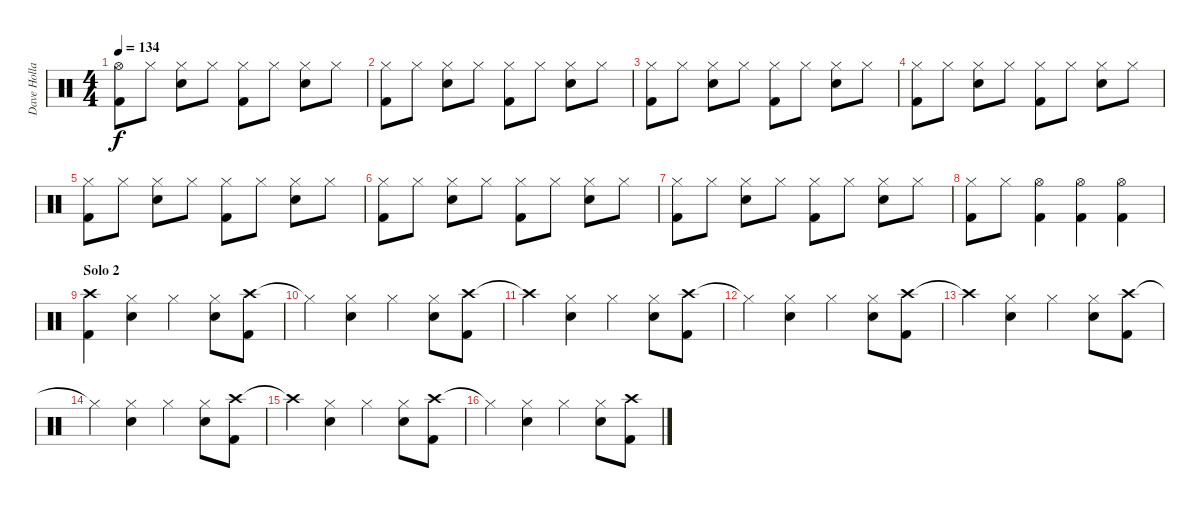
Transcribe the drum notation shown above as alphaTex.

\track ("Dave Holland" "Dave Holla") {instrument percussion}
\staff {score}
\articulation defaults
\ts (4 4)
\tempo 134
\clef neutral
\ks c
("Hi-Hat (open)" "Kick (hit) 2").8{dy f} "Hi-Hat (closed)".8 ("Hi-Hat (closed)" "Snare (hit) 2").8 "Hi-Hat (closed)".8 ("Hi-Hat (closed)" "Kick (hit) 2").8 "Hi-Hat (closed)".8 ("Hi-Hat (closed)" "Snare (hit) 2").8 "Hi-Hat (closed)".8 |
("Hi-Hat (closed)" "Kick (hit) 2").8 "Hi-Hat (closed)".8 ("Hi-Hat (closed)" "Snare (hit) 2").8 "Hi-Hat (closed)".8 ("Hi-Hat (closed)" "Kick (hit) 2").8 "Hi-Hat (closed)".8 ("Hi-Hat (closed)" "Snare (hit) 2").8 "Hi-Hat (closed)".8 |
("Hi-Hat (closed)" "Kick (hit) 2").8 "Hi-Hat (closed)".8 ("Hi-Hat (closed)" "Snare (hit) 2").8 "Hi-Hat (closed)".8 ("Hi-Hat (closed)" "Kick (hit) 2").8 "Hi-Hat (closed)".8 ("Hi-Hat (closed)" "Snare (hit) 2").8 "Hi-Hat (closed)".8 |
("Hi-Hat (closed)" "Kick (hit) 2").8 "Hi-Hat (closed)".8 ("Hi-Hat (closed)" "Snare (hit) 2").8 "Hi-Hat (closed)".8 ("Hi-Hat (closed)" "Kick (hit) 2").8 "Hi-Hat (closed)".8 ("Hi-Hat (closed)" "Snare (hit) 2").8 "Hi-Hat (closed)".8 |
("Hi-Hat (closed)" "Kick (hit) 2").8 "Hi-Hat (closed)".8 ("Hi-Hat (closed)" "Snare (hit) 2").8 "Hi-Hat (closed)".8 ("Hi-Hat (closed)" "Kick (hit) 2").8 "Hi-Hat (closed)".8 ("Hi-Hat (closed)" "Snare (hit) 2").8 "Hi-Hat (closed)".8 |
("Hi-Hat (closed)" "Kick (hit) 2").8 "Hi-Hat (closed)".8 ("Hi-Hat (closed)" "Snare (hit) 2").8 "Hi-Hat (closed)".8 ("Hi-Hat (closed)" "Kick (hit) 2").8 "Hi-Hat (closed)".8 ("Hi-Hat (closed)" "Snare (hit) 2").8 "Hi-Hat (closed)".8 |
("Hi-Hat (closed)" "Kick (hit) 2").8 "Hi-Hat (closed)".8 ("Hi-Hat (closed)" "Snare (hit) 2").8 "Hi-Hat (closed)".8 ("Hi-Hat (closed)" "Kick (hit) 2").8 "Hi-Hat (closed)".8 ("Hi-Hat (closed)" "Snare (hit) 2").8 "Hi-Hat (closed)".8 |
("Hi-Hat (closed)" "Kick (hit) 2").8 "Hi-Hat (closed)".8 ("Hi-Hat (open)" "Kick (hit) 2").4 ("Hi-Hat (open)" "Kick (hit) 2").4 ("Hi-Hat (open)" "Kick (hit) 2").4 |
\section ("" "Solo 2")
("Crash high (hit)" "Kick (hit) 2").4 ("Hi-Hat (closed)" "Snare (hit) 2").4 "Hi-Hat (closed)".4 ("Hi-Hat (closed)" "Snare (hit) 2").8 ("Crash high (hit)" "Kick (hit) 2").8 |
"Hi-Hat (closed)"{t}.4 ("Hi-Hat (closed)" "Snare (hit) 2").4 "Hi-Hat (closed)".4 ("Hi-Hat (closed)" "Snare (hit) 2").8 ("Crash high (hit)" "Kick (hit) 2").8 |
"Crash high (hit)"{t}.4 ("Hi-Hat (closed)" "Snare (hit) 2").4 "Hi-Hat (closed)".4 ("Hi-Hat (closed)" "Snare (hit) 2").8 ("Crash high (hit)" "Kick (hit) 2").8 |
"Hi-Hat (closed)"{t}.4 ("Hi-Hat (closed)" "Snare (hit) 2").4 "Hi-Hat (closed)".4 ("Hi-Hat (closed)" "Snare (hit) 2").8 ("Crash high (hit)" "Kick (hit) 2").8 |
"Crash high (hit)"{t}.4 ("Hi-Hat (closed)" "Snare (hit) 2").4 "Hi-Hat (closed)".4 ("Hi-Hat (closed)" "Snare (hit) 2").8 ("Crash high (hit)" "Kick (hit) 2").8 |
"Hi-Hat (closed)"{t}.4 ("Hi-Hat (closed)" "Snare (hit) 2").4 "Hi-Hat (closed)".4 ("Hi-Hat (closed)" "Snare (hit) 2").8 ("Crash high (hit)" "Kick (hit) 2").8 |
"Crash high (hit)"{t}.4 ("Hi-Hat (closed)" "Snare (hit) 2").4 "Hi-Hat (closed)".4 ("Hi-Hat (closed)" "Snare (hit) 2").8 ("Crash high (hit)" "Kick (hit) 2").8 |
"Hi-Hat (closed)"{t}.4 ("Hi-Hat (closed)" "Snare (hit) 2").4 "Hi-Hat (closed)".4 ("Hi-Hat (closed)" "Snare (hit) 2").8 ("Crash high (hit)" "Kick (hit) 2").8
